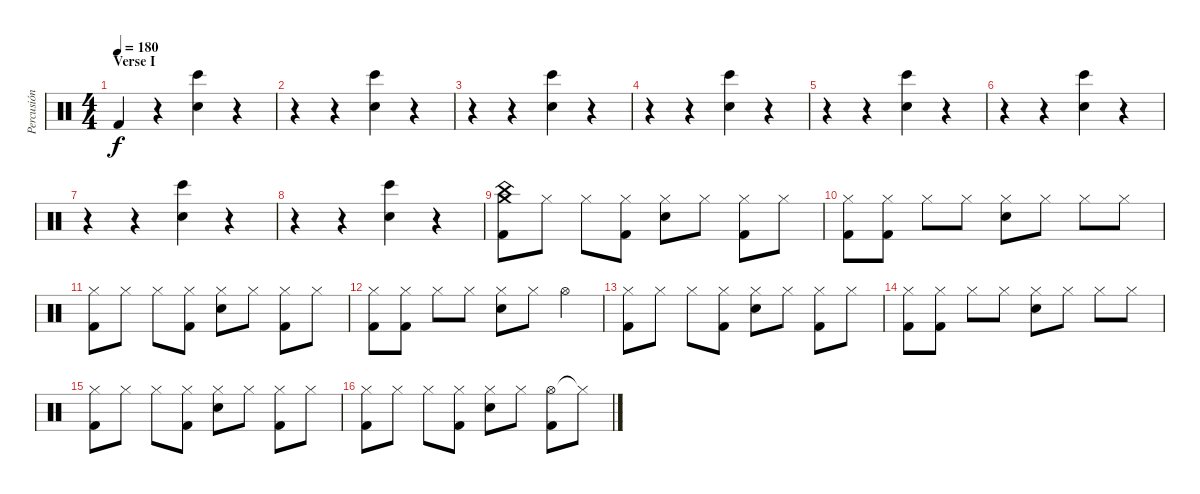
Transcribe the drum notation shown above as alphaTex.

\track ("Percusión" "Percusión") {instrument percussion}
\staff {score}
\articulation defaults
\ts (4 4)
\section ("" "Verse I")
\tempo 180
\clef neutral
\ks c "Kick (hit) 2".4{dy f volume 16}
r.4 ("Bongo High (hit)" "Snare (hit) 2").4 r.4 |
r.4 r.4 ("Bongo High (hit)" "Snare (hit) 2").4 r.4 |
r.4 r.4 ("Bongo High (hit)" "Snare (hit) 2").4 r.4 |
r.4 r.4 ("Bongo High (hit)" "Snare (hit) 2").4 r.4 |
r.4 r.4 ("Bongo High (hit)" "Snare (hit) 2").4 r.4 |
r.4 r.4 ("Bongo High (hit)" "Snare (hit) 2").4 r.4 |
r.4 r.4 ("Bongo High (hit)" "Snare (hit) 2").4 r.4 |
r.4 r.4 ("Bongo High (hit)" "Snare (hit) 2").4 r.4 |
("Crash medium (hit)" "China (hit)" "Kick (hit) 2").8 "Hi-Hat (closed)".8 "Hi-Hat (closed)".8 ("Hi-Hat (closed)" "Kick (hit) 2").8 ("Hi-Hat (closed)" "Snare (hit) 2").8 "Hi-Hat (closed)".8 ("Hi-Hat (closed)" "Kick (hit) 2").8 "Hi-Hat (closed)".8 |
("Hi-Hat (closed)" "Kick (hit) 2").8 ("Hi-Hat (closed)" "Kick (hit) 2").8 "Hi-Hat (closed)".8 "Hi-Hat (closed)".8 ("Hi-Hat (closed)" "Snare (hit) 2").8 "Hi-Hat (closed)".8 "Hi-Hat (closed)".8 "Hi-Hat (closed)".8 |
("Hi-Hat (closed)" "Kick (hit) 2").8 "Hi-Hat (closed)".8 "Hi-Hat (closed)".8 ("Hi-Hat (closed)" "Kick (hit) 2").8 ("Hi-Hat (closed)" "Snare (hit) 2").8 "Hi-Hat (closed)".8 ("Hi-Hat (closed)" "Kick (hit) 2").8 "Hi-Hat (closed)".8 |
("Hi-Hat (closed)" "Kick (hit) 2").8 ("Hi-Hat (closed)" "Kick (hit) 2").8 "Hi-Hat (closed)".8 "Hi-Hat (closed)".8 ("Hi-Hat (closed)" "Snare (hit) 2").8 "Hi-Hat (closed)".8 "Hi-Hat (open)".4 |
("Hi-Hat (closed)" "Kick (hit) 2").8 "Hi-Hat (closed)".8 "Hi-Hat (closed)".8 ("Hi-Hat (closed)" "Kick (hit) 2").8 ("Hi-Hat (closed)" "Snare (hit) 2").8 "Hi-Hat (closed)".8 ("Hi-Hat (closed)" "Kick (hit) 2").8 "Hi-Hat (closed)".8 |
("Hi-Hat (closed)" "Kick (hit) 2").8 ("Hi-Hat (closed)" "Kick (hit) 2").8 "Hi-Hat (closed)".8 "Hi-Hat (closed)".8 ("Hi-Hat (closed)" "Snare (hit) 2").8 "Hi-Hat (closed)".8 "Hi-Hat (closed)".8 "Hi-Hat (closed)".8 |
("Hi-Hat (closed)" "Kick (hit) 2").8 "Hi-Hat (closed)".8 "Hi-Hat (closed)".8 ("Hi-Hat (closed)" "Kick (hit) 2").8 ("Hi-Hat (closed)" "Snare (hit) 2").8 "Hi-Hat (closed)".8 ("Hi-Hat (closed)" "Kick (hit) 2").8 "Hi-Hat (closed)".8 |
("Hi-Hat (closed)" "Kick (hit) 2").8 "Hi-Hat (closed)".8 "Hi-Hat (closed)".8 ("Hi-Hat (closed)" "Kick (hit) 2").8 ("Hi-Hat (closed)" "Snare (hit) 2").8 "Hi-Hat (closed)".8 ("Hi-Hat (open)" "Kick (hit) 2").8 "Hi-Hat (closed)"{t}.8
